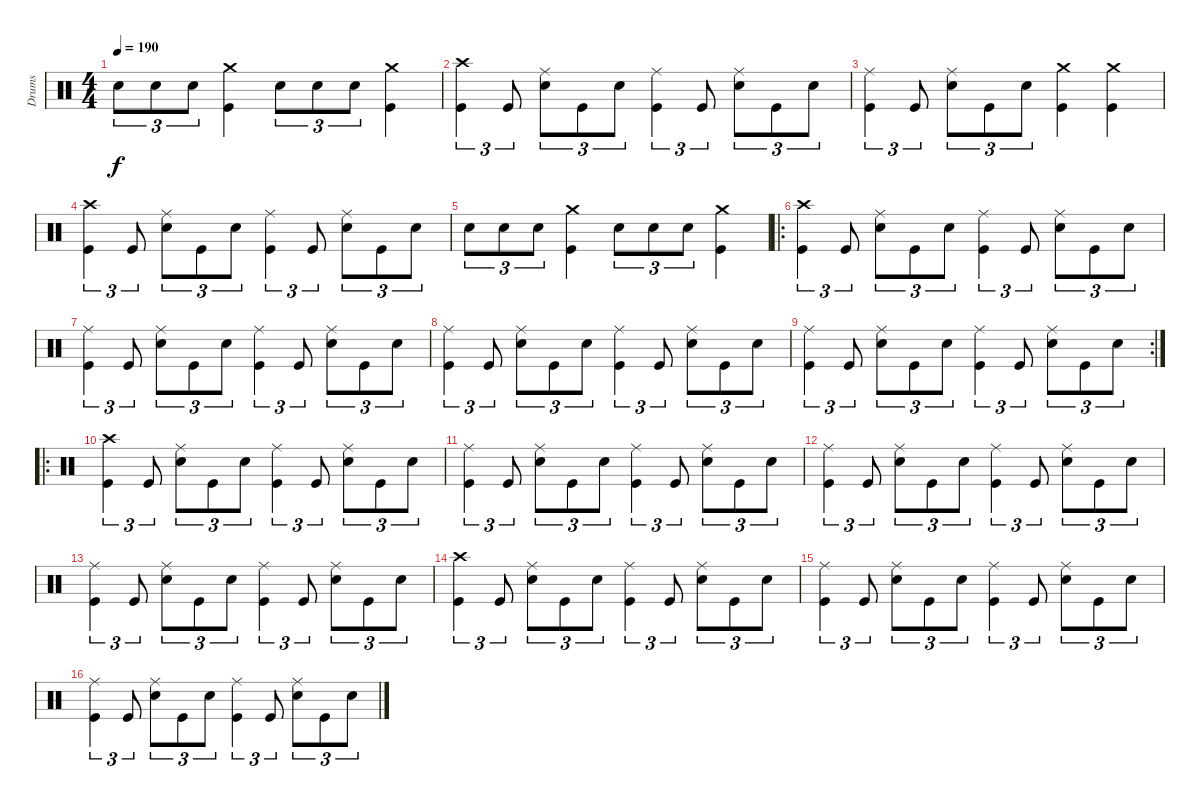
\track ("Drums" "Drums") {instrument percussion}
\staff {score}
\articulation defaults
\ts (4 4)
\tempo 190
\clef neutral
\ks c "Snare (hit) 2".8{tu (3 2) dy f} "Snare (hit) 2".8{tu (3 2)} "Snare (hit) 2".8{tu (3 2)}
("Crash medium (hit)" "Kick (hit)").4 "Snare (hit) 2".8{tu (3 2)} "Snare (hit) 2".8{tu (3 2)} "Snare (hit) 2".8{tu (3 2)} ("Crash medium (hit)" "Kick (hit)").4 |
("Crash high (hit)" "Kick (hit)").4{tu (3 2)} "Kick (hit)".8{tu (3 2)} ("Ride (middle)" "Snare (hit) 2").8{tu (3 2)} "Kick (hit)".8{tu (3 2)} "Snare (hit) 2".8{tu (3 2)} ("Ride (middle)" "Kick (hit)").4{tu (3 2)} "Kick (hit)".8{tu (3 2)} ("Ride (middle)" "Snare (hit) 2").8{tu (3 2)} "Kick (hit)".8{tu (3 2)} "Snare (hit) 2".8{tu (3 2)} |
("Ride (middle)" "Kick (hit)").4{tu (3 2)} "Kick (hit)".8{tu (3 2)} ("Ride (middle)" "Snare (hit) 2").8{tu (3 2)} "Kick (hit)".8{tu (3 2)} "Snare (hit) 2".8{tu (3 2)} ("Crash medium (hit)" "Kick (hit)").4 ("Crash medium (hit)" "Kick (hit)").4 |
("Crash high (hit)" "Kick (hit)").4{tu (3 2)} "Kick (hit)".8{tu (3 2)} ("Ride (middle)" "Snare (hit) 2").8{tu (3 2)} "Kick (hit)".8{tu (3 2)} "Snare (hit) 2".8{tu (3 2)} ("Ride (middle)" "Kick (hit)").4{tu (3 2)} "Kick (hit)".8{tu (3 2)} ("Ride (middle)" "Snare (hit) 2").8{tu (3 2)} "Kick (hit)".8{tu (3 2)} "Snare (hit) 2".8{tu (3 2)} |
"Snare (hit) 2".8{tu (3 2)} "Snare (hit) 2".8{tu (3 2)} "Snare (hit) 2".8{tu (3 2)} ("Crash medium (hit)" "Kick (hit)").4 "Snare (hit) 2".8{tu (3 2)} "Snare (hit) 2".8{tu (3 2)} "Snare (hit) 2".8{tu (3 2)} ("Crash medium (hit)" "Kick (hit)").4 |
\ro
("Crash high (hit)" "Kick (hit)").4{tu (3 2)} "Kick (hit)".8{tu (3 2)} ("Ride (middle)" "Snare (hit) 2").8{tu (3 2)} "Kick (hit)".8{tu (3 2)} "Snare (hit) 2".8{tu (3 2)} ("Ride (middle)" "Kick (hit)").4{tu (3 2)} "Kick (hit)".8{tu (3 2)} ("Ride (middle)" "Snare (hit) 2").8{tu (3 2)} "Kick (hit)".8{tu (3 2)} "Snare (hit) 2".8{tu (3 2)} |
("Ride (middle)" "Kick (hit)").4{tu (3 2)} "Kick (hit)".8{tu (3 2)} ("Ride (middle)" "Snare (hit) 2").8{tu (3 2)} "Kick (hit)".8{tu (3 2)} "Snare (hit) 2".8{tu (3 2)} ("Ride (middle)" "Kick (hit)").4{tu (3 2)} "Kick (hit)".8{tu (3 2)} ("Ride (middle)" "Snare (hit) 2").8{tu (3 2)} "Kick (hit)".8{tu (3 2)} "Snare (hit) 2".8{tu (3 2)} |
("Ride (middle)" "Kick (hit)").4{tu (3 2)} "Kick (hit)".8{tu (3 2)} ("Ride (middle)" "Snare (hit) 2").8{tu (3 2)} "Kick (hit)".8{tu (3 2)} "Snare (hit) 2".8{tu (3 2)} ("Ride (middle)" "Kick (hit)").4{tu (3 2)} "Kick (hit)".8{tu (3 2)} ("Ride (middle)" "Snare (hit) 2").8{tu (3 2)} "Kick (hit)".8{tu (3 2)} "Snare (hit) 2".8{tu (3 2)} |
\rc 2
("Ride (middle)" "Kick (hit)").4{tu (3 2)} "Kick (hit)".8{tu (3 2)} ("Ride (middle)" "Snare (hit) 2").8{tu (3 2)} "Kick (hit)".8{tu (3 2)} "Snare (hit) 2".8{tu (3 2)} ("Ride (middle)" "Kick (hit)").4{tu (3 2)} "Kick (hit)".8{tu (3 2)} ("Ride (middle)" "Snare (hit) 2").8{tu (3 2)} "Kick (hit)".8{tu (3 2)} "Snare (hit) 2".8{tu (3 2)} |
\ro
("Crash high (hit)" "Kick (hit)").4{tu (3 2)} "Kick (hit)".8{tu (3 2)} ("Ride (middle)" "Snare (hit) 2").8{tu (3 2)} "Kick (hit)".8{tu (3 2)} "Snare (hit) 2".8{tu (3 2)} ("Ride (middle)" "Kick (hit)").4{tu (3 2)} "Kick (hit)".8{tu (3 2)} ("Ride (middle)" "Snare (hit) 2").8{tu (3 2)} "Kick (hit)".8{tu (3 2)} "Snare (hit) 2".8{tu (3 2)} |
("Ride (middle)" "Kick (hit)").4{tu (3 2)} "Kick (hit)".8{tu (3 2)} ("Ride (middle)" "Snare (hit) 2").8{tu (3 2)} "Kick (hit)".8{tu (3 2)} "Snare (hit) 2".8{tu (3 2)} ("Ride (middle)" "Kick (hit)").4{tu (3 2)} "Kick (hit)".8{tu (3 2)} ("Ride (middle)" "Snare (hit) 2").8{tu (3 2)} "Kick (hit)".8{tu (3 2)} "Snare (hit) 2".8{tu (3 2)} |
("Ride (middle)" "Kick (hit)").4{tu (3 2)} "Kick (hit)".8{tu (3 2)} ("Ride (middle)" "Snare (hit) 2").8{tu (3 2)} "Kick (hit)".8{tu (3 2)} "Snare (hit) 2".8{tu (3 2)} ("Ride (middle)" "Kick (hit)").4{tu (3 2)} "Kick (hit)".8{tu (3 2)} ("Ride (middle)" "Snare (hit) 2").8{tu (3 2)} "Kick (hit)".8{tu (3 2)} "Snare (hit) 2".8{tu (3 2)} |
("Ride (middle)" "Kick (hit)").4{tu (3 2)} "Kick (hit)".8{tu (3 2)} ("Ride (middle)" "Snare (hit) 2").8{tu (3 2)} "Kick (hit)".8{tu (3 2)} "Snare (hit) 2".8{tu (3 2)} ("Ride (middle)" "Kick (hit)").4{tu (3 2)} "Kick (hit)".8{tu (3 2)} ("Ride (middle)" "Snare (hit) 2").8{tu (3 2)} "Kick (hit)".8{tu (3 2)} "Snare (hit) 2".8{tu (3 2)} |
("Crash high (hit)" "Kick (hit)").4{tu (3 2)} "Kick (hit)".8{tu (3 2)} ("Ride (middle)" "Snare (hit) 2").8{tu (3 2)} "Kick (hit)".8{tu (3 2)} "Snare (hit) 2".8{tu (3 2)} ("Ride (middle)" "Kick (hit)").4{tu (3 2)} "Kick (hit)".8{tu (3 2)} ("Ride (middle)" "Snare (hit) 2").8{tu (3 2)} "Kick (hit)".8{tu (3 2)} "Snare (hit) 2".8{tu (3 2)} |
("Ride (middle)" "Kick (hit)").4{tu (3 2)} "Kick (hit)".8{tu (3 2)} ("Ride (middle)" "Snare (hit) 2").8{tu (3 2)} "Kick (hit)".8{tu (3 2)} "Snare (hit) 2".8{tu (3 2)} ("Ride (middle)" "Kick (hit)").4{tu (3 2)} "Kick (hit)".8{tu (3 2)} ("Ride (middle)" "Snare (hit) 2").8{tu (3 2)} "Kick (hit)".8{tu (3 2)} "Snare (hit) 2".8{tu (3 2)} |
("Ride (middle)" "Kick (hit)").4{tu (3 2)} "Kick (hit)".8{tu (3 2)} ("Ride (middle)" "Snare (hit) 2").8{tu (3 2)} "Kick (hit)".8{tu (3 2)} "Snare (hit) 2".8{tu (3 2)} ("Ride (middle)" "Kick (hit)").4{tu (3 2)} "Kick (hit)".8{tu (3 2)} ("Ride (middle)" "Snare (hit) 2").8{tu (3 2)} "Kick (hit)".8{tu (3 2)} "Snare (hit) 2".8{tu (3 2)}
